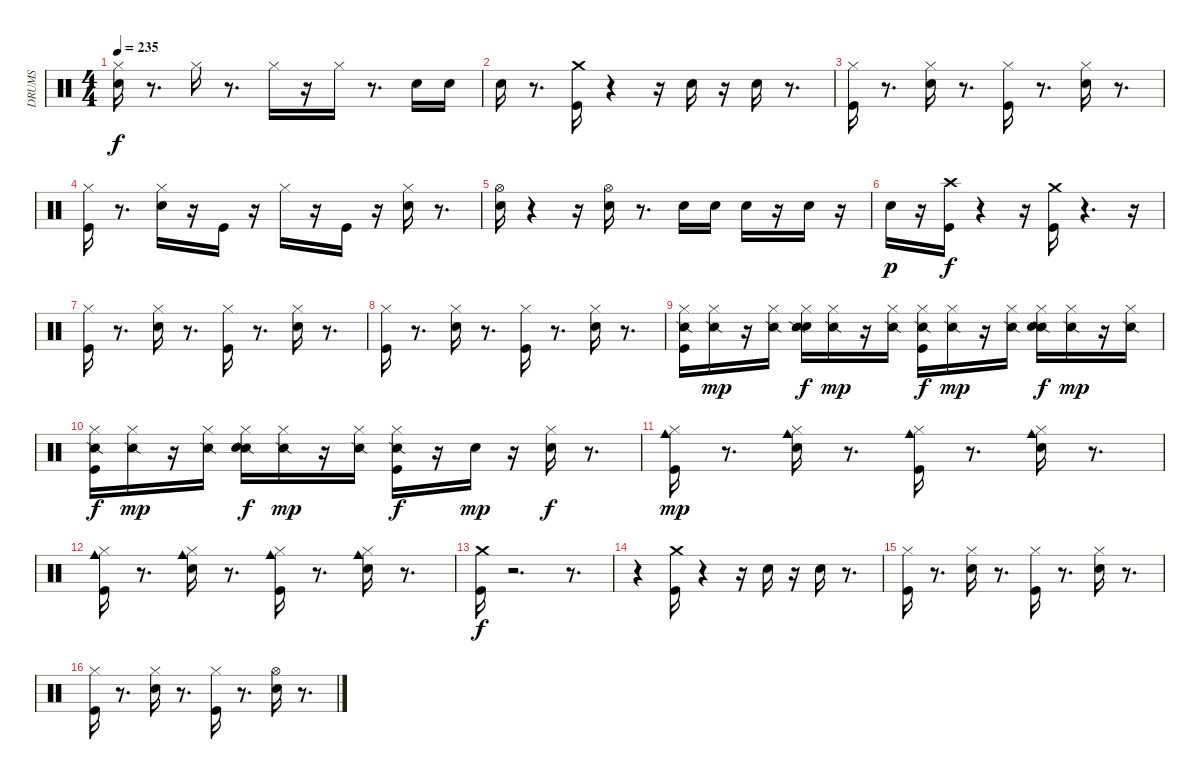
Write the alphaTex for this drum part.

\track ("DRUMS" "DRUMS") {instrument percussion}
\staff {score}
\articulation defaults
\ts (4 4)
\tempo 235
\clef neutral
\ks c
("Electric Snare (hit)" "Hi-Hat (closed)").16{dy f} r.8{d} "Hi-Hat (closed)".16 r.8{d} "Hi-Hat (closed)".16 r.16 "Hi-Hat (closed)".16 r.8{d} "Electric Snare (hit)".16 "Electric Snare (hit)".16 |
"Electric Snare (hit)".16 r.8{d} ("Crash medium (hit)" "Kick (hit)").16 r.4 r.16 "Electric Snare (hit)".16 r.16 "Electric Snare (hit)".16 r.8{d} |
("Hi-Hat (closed)" "Kick (hit)").16 r.8{d} ("Electric Snare (hit)" "Hi-Hat (closed)").16 r.8{d} ("Kick (hit)" "Hi-Hat (closed)").16 r.8{d} ("Electric Snare (hit)" "Hi-Hat (closed)").16 r.8{d} |
("Kick (hit)" "Hi-Hat (closed)").16 r.8{d} ("Electric Snare (hit)" "Hi-Hat (closed)").16 r.16 "Kick (hit)".16 r.16 "Hi-Hat (closed)".16 r.16 "Kick (hit)".16 r.16 ("Electric Snare (hit)" "Hi-Hat (closed)").16 r.8{d} |
("Hi-Hat (open)" "Electric Snare (hit)").16 r.4 r.16 ("Hi-Hat (open)" "Electric Snare (hit)").16 r.8{d} "Electric Snare (hit)".16 "Electric Snare (hit)".16 "Electric Snare (hit)".16 r.16 "Electric Snare (hit)".16 r.16 |
"Electric Snare (hit)".16{dy p} r.16 ("Kick (hit)" "Crash high (hit)").16{dy f} r.4 r.16 ("Kick (hit)" "Crash medium (hit)").16 r.4{d} r.16 |
("Hi-Hat (closed)" "Kick (hit)").16 r.8{d} ("Electric Snare (hit)" "Hi-Hat (closed)").16 r.8{d} ("Kick (hit)" "Hi-Hat (closed)").16 r.8{d} ("Electric Snare (hit)" "Hi-Hat (closed)").16 r.8{d} |
("Kick (hit)" "Hi-Hat (closed)").16 r.8{d} ("Electric Snare (hit)" "Hi-Hat (closed)").16 r.8{d} ("Kick (hit)" "Hi-Hat (closed)").16 r.8{d} ("Electric Snare (hit)" "Hi-Hat (closed)").16 r.8{d} |
("Snare (side stick) 2" "Hi-Hat (closed)" "Kick (hit)").16 ("Snare (side stick) 2" "Hi-Hat (closed)").16{dy mp} r.16 ("Hi-Hat (closed)" "Snare (side stick) 2").16 ("Hi-Hat (closed)" "Electric Snare (hit)" "Snare (side stick) 2").16{dy f} ("Snare (side stick) 2" "Hi-Hat (closed)").16{dy mp} r.16 ("Hi-Hat (closed)" "Snare (side stick) 2").16 ("Snare (side stick) 2" "Kick (hit)" "Hi-Hat (closed)").16{dy f} ("Hi-Hat (closed)" "Snare (side stick) 2").16{dy mp} r.16 ("Hi-Hat (closed)" "Snare (side stick) 2").16 ("Snare (side stick) 2" "Hi-Hat (closed)" "Electric Snare (hit)").16{dy f} ("Snare (side stick) 2" "Hi-Hat (closed)").16{dy mp} r.16 ("Snare (side stick) 2" "Hi-Hat (closed)").16 |
("Kick (hit)" "Snare (side stick) 2" "Hi-Hat (closed)").16{dy f} ("Snare (side stick) 2" "Hi-Hat (closed)").16{dy mp} r.16 ("Snare (side stick) 2" "Hi-Hat (closed)").16 ("Hi-Hat (closed)" "Snare (side stick) 2" "Electric Snare (hit)").16{dy f} ("Snare (side stick) 2" "Hi-Hat (closed)").16{dy mp} r.16 ("Hi-Hat (closed)" "Snare (side stick) 2").16 ("Kick (hit)" "Snare (side stick) 2" "Hi-Hat (closed)").16{dy f} r.16 "Electric Snare (hit)".16{dy mp} r.16 ("Electric Snare (hit)" "Hi-Hat (closed)").16{dy f} r.8{d} |
("Kick (hit)" "Hi-Hat (closed)" "Cowbell medium (hit)").16{dy mp} r.8{d} ("Electric Snare (hit)" "Hi-Hat (closed)" "Cowbell medium (hit)").16 r.8{d} ("Kick (hit)" "Hi-Hat (closed)" "Cowbell medium (hit)").16 r.8{d} ("Electric Snare (hit)" "Hi-Hat (closed)" "Cowbell medium (hit)").16 r.8{d} |
("Cowbell medium (hit)" "Hi-Hat (closed)" "Kick (hit)").16 r.8{d} ("Cowbell medium (hit)" "Hi-Hat (closed)" "Electric Snare (hit)").16 r.8{d} ("Kick (hit)" "Hi-Hat (closed)" "Cowbell medium (hit)").16 r.8{d} ("Electric Snare (hit)" "Hi-Hat (closed)" "Cowbell medium (hit)").16 r.8{d} |
("Kick (hit)" "Crash medium (hit)").16{dy f} r.2{d} r.8{d} |
r.4 ("Crash medium (hit)" "Kick (hit)").16 r.4 r.16 "Electric Snare (hit)".16 r.16 "Electric Snare (hit)".16 r.8{d} |
("Kick (hit)" "Hi-Hat (closed)").16 r.8{d} ("Electric Snare (hit)" "Hi-Hat (closed)").16 r.8{d} ("Kick (hit)" "Hi-Hat (closed)").16 r.8{d} ("Electric Snare (hit)" "Hi-Hat (closed)").16 r.8{d} |
("Kick (hit)" "Hi-Hat (closed)").16 r.8{d} ("Electric Snare (hit)" "Hi-Hat (closed)").16 r.8{d} ("Kick (hit)" "Hi-Hat (closed)").16 r.8{d} ("Electric Snare (hit)" "Hi-Hat (open)").16 r.8{d}
